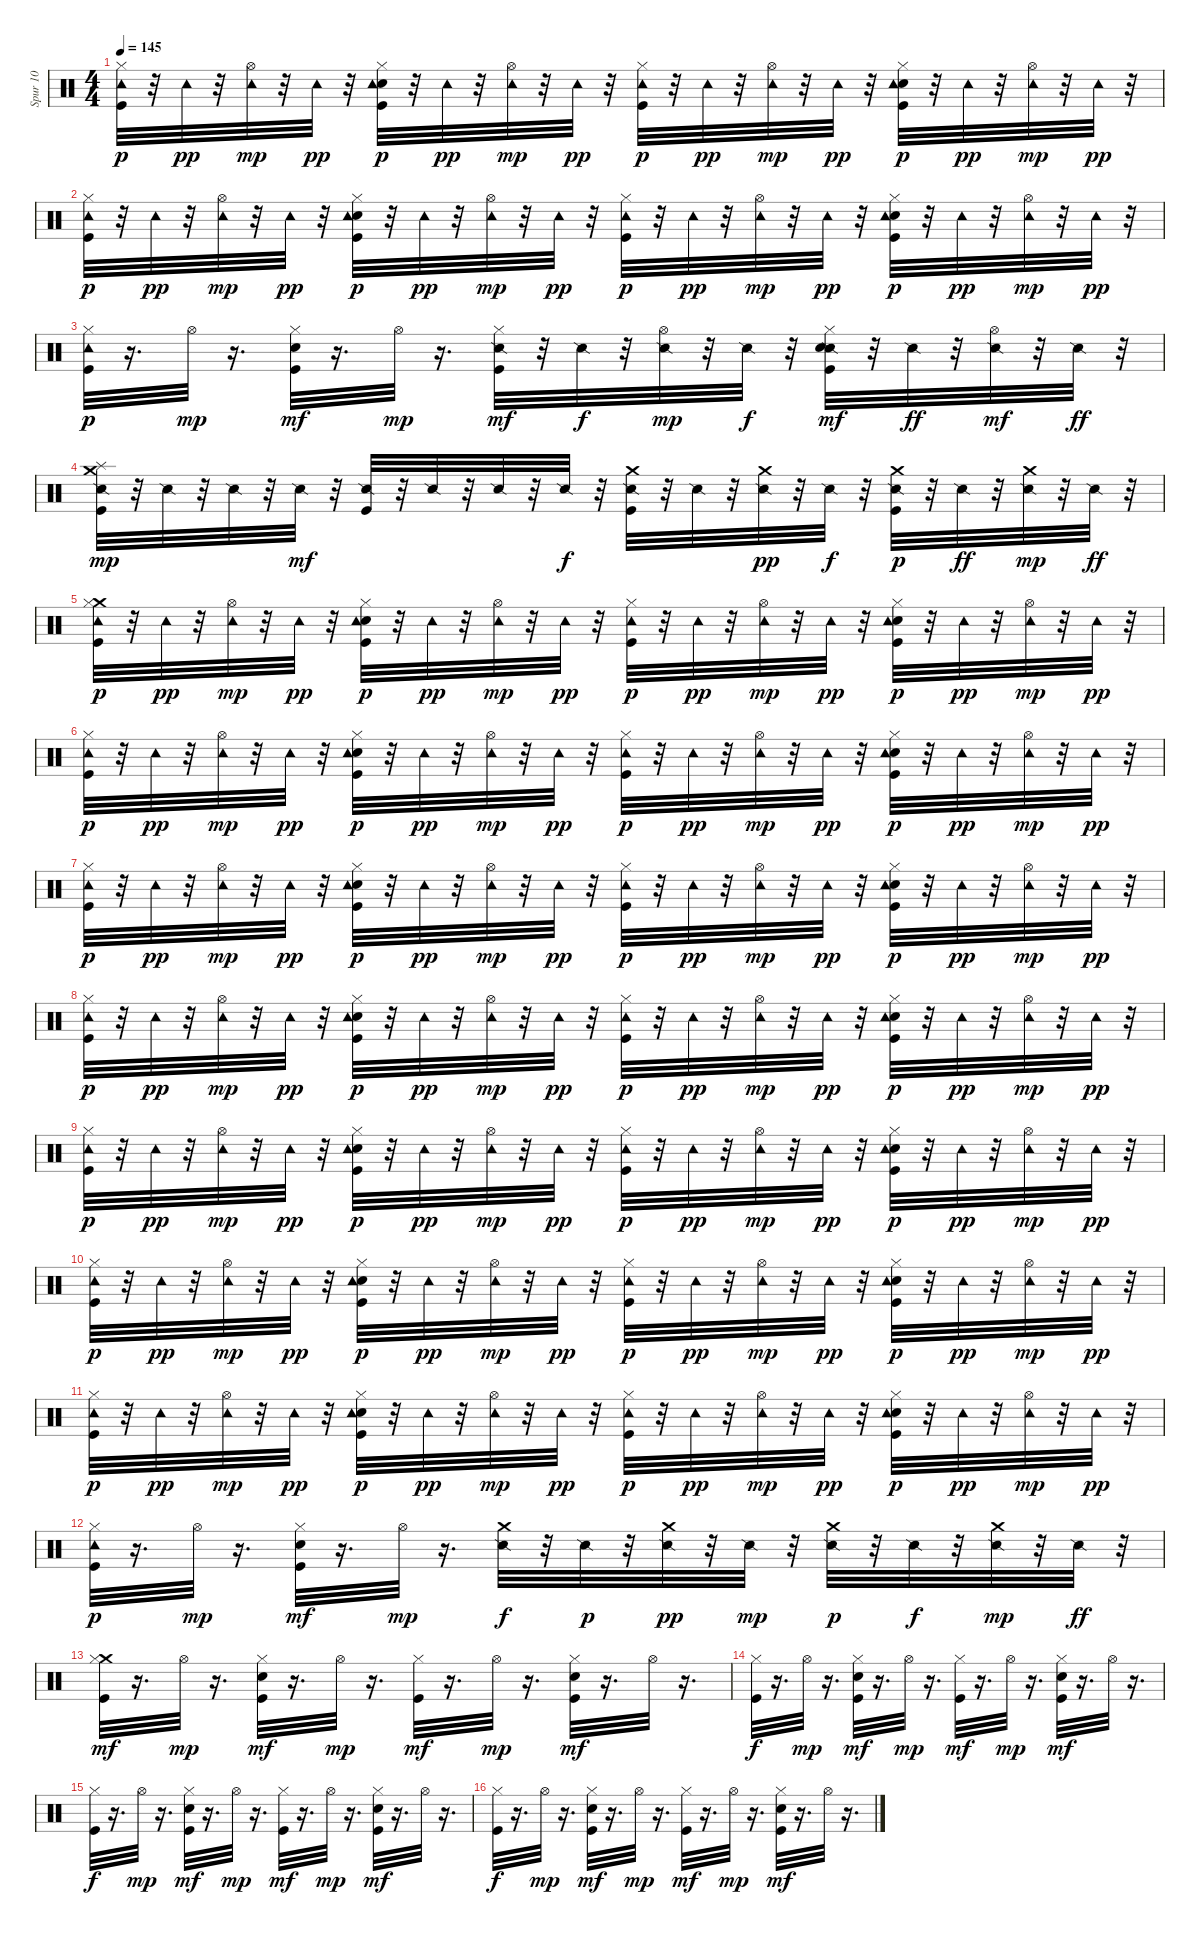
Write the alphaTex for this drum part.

\track ("Spur 10" "Spur 10") {instrument percussion}
\staff {score}
\articulation defaults
\ts (4 4)
\tempo 145
\clef neutral
\ks c
("Kick (hit)" "Hi-Hat (closed)" "Tambourine (hit)").32{dy p} r.32 "Tambourine (hit)".32{dy pp} r.32 ("Hi-Hat (open)" "Tambourine (hit)").32{dy mp} r.32 "Tambourine (hit)".32{dy pp} r.32 ("Kick (hit)" "Snare (hit) 2" "Hi-Hat (closed)" "Tambourine (hit)").32{dy p} r.32 "Tambourine (hit)".32{dy pp} r.32 ("Hi-Hat (open)" "Tambourine (hit)").32{dy mp} r.32 "Tambourine (hit)".32{dy pp} r.32 ("Kick (hit)" "Hi-Hat (closed)" "Tambourine (hit)").32{dy p} r.32 "Tambourine (hit)".32{dy pp} r.32 ("Hi-Hat (open)" "Tambourine (hit)").32{dy mp} r.32 "Tambourine (hit)".32{dy pp} r.32 ("Kick (hit)" "Snare (hit) 2" "Hi-Hat (closed)" "Tambourine (hit)").32{dy p} r.32 "Tambourine (hit)".32{dy pp} r.32 ("Hi-Hat (open)" "Tambourine (hit)").32{dy mp} r.32 "Tambourine (hit)".32{dy pp} r.32 |
("Kick (hit)" "Hi-Hat (closed)" "Tambourine (hit)").32{dy p} r.32 "Tambourine (hit)".32{dy pp} r.32 ("Hi-Hat (open)" "Tambourine (hit)").32{dy mp} r.32 "Tambourine (hit)".32{dy pp} r.32 ("Kick (hit)" "Snare (hit) 2" "Hi-Hat (closed)" "Tambourine (hit)").32{dy p} r.32 "Tambourine (hit)".32{dy pp} r.32 ("Hi-Hat (open)" "Tambourine (hit)").32{dy mp} r.32 "Tambourine (hit)".32{dy pp} r.32 ("Kick (hit)" "Hi-Hat (closed)" "Tambourine (hit)").32{dy p} r.32 "Tambourine (hit)".32{dy pp} r.32 ("Hi-Hat (open)" "Tambourine (hit)").32{dy mp} r.32 "Tambourine (hit)".32{dy pp} r.32 ("Kick (hit)" "Snare (hit) 2" "Hi-Hat (closed)" "Tambourine (hit)").32{dy p} r.32 "Tambourine (hit)".32{dy pp} r.32 ("Hi-Hat (open)" "Tambourine (hit)").32{dy mp} r.32 "Tambourine (hit)".32{dy pp} r.32 |
("Kick (hit)" "Hi-Hat (closed)" "Tambourine (hit)").32{dy p} r.16{d} "Hi-Hat (open)".32{dy mp} r.16{d} ("Kick (hit)" "Snare (hit) 2" "Hi-Hat (closed)").32{dy mf} r.16{d} "Hi-Hat (open)".32{dy mp} r.16{d} ("Snare (side stick) 2" "Kick (hit)" "Hi-Hat (closed)").32{dy mf} r.32 "Snare (side stick) 2".32{dy f} r.32 ("Snare (side stick) 2" "Hi-Hat (open)").32{dy mp balance 11} r.32 "Snare (side stick) 2".32{dy f} r.32 ("Snare (side stick) 2" "Kick (hit)" "Snare (hit) 2" "Hi-Hat (closed)").32{dy mf balance 8} r.32 "Snare (side stick) 2".32{dy ff} r.32 ("Snare (side stick) 2" "Hi-Hat (open)").32{dy mf balance 4} r.32 "Snare (side stick) 2".32{dy ff} r.32 |
("Crash medium (hit)" "Snare (side stick) 2" "Kick (hit)" "Splash (hit)").32{dy mp balance 8} r.32 "Snare (side stick) 2".32 r.32 "Snare (side stick) 2".32 r.32 "Snare (side stick) 2".32{dy mf} r.32 ("Snare (side stick) 2" "Kick (hit)").32 r.32 "Snare (side stick) 2".32 r.32 "Snare (side stick) 2".32 r.32 "Snare (side stick) 2".32{dy f} r.32 ("Snare (side stick) 2" "Kick (hit)" "Crash medium (hit)").32{balance 10} r.32 "Snare (side stick) 2".32 r.32 ("Snare (side stick) 2" "Crash medium (hit)").32{dy pp balance 14} r.32 "Snare (side stick) 2".32{dy f} r.32 ("Snare (side stick) 2" "Kick (hit)" "Crash medium (hit)").32{dy p balance 7} r.32 "Snare (side stick) 2".32{dy ff} r.32 ("Snare (side stick) 2" "Crash medium (hit)").32{dy mp balance 0} r.32 "Snare (side stick) 2".32{dy ff} r.32 |
("Crash medium (hit)" "Kick (hit)" "Hi-Hat (closed)" "Tambourine (hit)").32{dy p balance 8} r.32 "Tambourine (hit)".32{dy pp} r.32 ("Hi-Hat (open)" "Tambourine (hit)").32{dy mp} r.32 "Tambourine (hit)".32{dy pp} r.32 ("Kick (hit)" "Snare (hit) 2" "Hi-Hat (closed)" "Tambourine (hit)").32{dy p} r.32 "Tambourine (hit)".32{dy pp} r.32 ("Hi-Hat (open)" "Tambourine (hit)").32{dy mp} r.32 "Tambourine (hit)".32{dy pp} r.32 ("Kick (hit)" "Hi-Hat (closed)" "Tambourine (hit)").32{dy p} r.32 "Tambourine (hit)".32{dy pp} r.32 ("Hi-Hat (open)" "Tambourine (hit)").32{dy mp} r.32 "Tambourine (hit)".32{dy pp} r.32 ("Kick (hit)" "Snare (hit) 2" "Hi-Hat (closed)" "Tambourine (hit)").32{dy p} r.32 "Tambourine (hit)".32{dy pp} r.32 ("Hi-Hat (open)" "Tambourine (hit)").32{dy mp} r.32 "Tambourine (hit)".32{dy pp} r.32 |
("Kick (hit)" "Hi-Hat (closed)" "Tambourine (hit)").32{dy p} r.32 "Tambourine (hit)".32{dy pp} r.32 ("Hi-Hat (open)" "Tambourine (hit)").32{dy mp} r.32 "Tambourine (hit)".32{dy pp} r.32 ("Kick (hit)" "Snare (hit) 2" "Hi-Hat (closed)" "Tambourine (hit)").32{dy p} r.32 "Tambourine (hit)".32{dy pp} r.32 ("Hi-Hat (open)" "Tambourine (hit)").32{dy mp} r.32 "Tambourine (hit)".32{dy pp} r.32 ("Kick (hit)" "Hi-Hat (closed)" "Tambourine (hit)").32{dy p} r.32 "Tambourine (hit)".32{dy pp} r.32 ("Hi-Hat (open)" "Tambourine (hit)").32{dy mp} r.32 "Tambourine (hit)".32{dy pp} r.32 ("Kick (hit)" "Snare (hit) 2" "Hi-Hat (closed)" "Tambourine (hit)").32{dy p} r.32 "Tambourine (hit)".32{dy pp} r.32 ("Hi-Hat (open)" "Tambourine (hit)").32{dy mp} r.32 "Tambourine (hit)".32{dy pp} r.32 |
("Kick (hit)" "Hi-Hat (closed)" "Tambourine (hit)").32{dy p} r.32 "Tambourine (hit)".32{dy pp} r.32 ("Hi-Hat (open)" "Tambourine (hit)").32{dy mp} r.32 "Tambourine (hit)".32{dy pp} r.32 ("Kick (hit)" "Snare (hit) 2" "Hi-Hat (closed)" "Tambourine (hit)").32{dy p} r.32 "Tambourine (hit)".32{dy pp} r.32 ("Hi-Hat (open)" "Tambourine (hit)").32{dy mp} r.32 "Tambourine (hit)".32{dy pp} r.32 ("Kick (hit)" "Hi-Hat (closed)" "Tambourine (hit)").32{dy p} r.32 "Tambourine (hit)".32{dy pp} r.32 ("Hi-Hat (open)" "Tambourine (hit)").32{dy mp} r.32 "Tambourine (hit)".32{dy pp} r.32 ("Kick (hit)" "Snare (hit) 2" "Hi-Hat (closed)" "Tambourine (hit)").32{dy p} r.32 "Tambourine (hit)".32{dy pp} r.32 ("Hi-Hat (open)" "Tambourine (hit)").32{dy mp} r.32 "Tambourine (hit)".32{dy pp} r.32 |
("Kick (hit)" "Hi-Hat (closed)" "Tambourine (hit)").32{dy p} r.32 "Tambourine (hit)".32{dy pp} r.32 ("Hi-Hat (open)" "Tambourine (hit)").32{dy mp} r.32 "Tambourine (hit)".32{dy pp} r.32 ("Kick (hit)" "Snare (hit) 2" "Hi-Hat (closed)" "Tambourine (hit)").32{dy p} r.32 "Tambourine (hit)".32{dy pp} r.32 ("Hi-Hat (open)" "Tambourine (hit)").32{dy mp} r.32 "Tambourine (hit)".32{dy pp} r.32 ("Kick (hit)" "Hi-Hat (closed)" "Tambourine (hit)").32{dy p} r.32 "Tambourine (hit)".32{dy pp} r.32 ("Hi-Hat (open)" "Tambourine (hit)").32{dy mp} r.32 "Tambourine (hit)".32{dy pp} r.32 ("Kick (hit)" "Snare (hit) 2" "Hi-Hat (closed)" "Tambourine (hit)").32{dy p} r.32 "Tambourine (hit)".32{dy pp} r.32 ("Hi-Hat (open)" "Tambourine (hit)").32{dy mp} r.32 "Tambourine (hit)".32{dy pp} r.32 |
("Kick (hit)" "Hi-Hat (closed)" "Tambourine (hit)").32{dy p} r.32 "Tambourine (hit)".32{dy pp} r.32 ("Hi-Hat (open)" "Tambourine (hit)").32{dy mp} r.32 "Tambourine (hit)".32{dy pp} r.32 ("Kick (hit)" "Snare (hit) 2" "Hi-Hat (closed)" "Tambourine (hit)").32{dy p} r.32 "Tambourine (hit)".32{dy pp} r.32 ("Hi-Hat (open)" "Tambourine (hit)").32{dy mp} r.32 "Tambourine (hit)".32{dy pp} r.32 ("Kick (hit)" "Hi-Hat (closed)" "Tambourine (hit)").32{dy p} r.32 "Tambourine (hit)".32{dy pp} r.32 ("Hi-Hat (open)" "Tambourine (hit)").32{dy mp} r.32 "Tambourine (hit)".32{dy pp} r.32 ("Kick (hit)" "Snare (hit) 2" "Hi-Hat (closed)" "Tambourine (hit)").32{dy p} r.32 "Tambourine (hit)".32{dy pp} r.32 ("Hi-Hat (open)" "Tambourine (hit)").32{dy mp} r.32 "Tambourine (hit)".32{dy pp} r.32 |
("Kick (hit)" "Hi-Hat (closed)" "Tambourine (hit)").32{dy p} r.32 "Tambourine (hit)".32{dy pp} r.32 ("Hi-Hat (open)" "Tambourine (hit)").32{dy mp} r.32 "Tambourine (hit)".32{dy pp} r.32 ("Kick (hit)" "Snare (hit) 2" "Hi-Hat (closed)" "Tambourine (hit)").32{dy p} r.32 "Tambourine (hit)".32{dy pp} r.32 ("Hi-Hat (open)" "Tambourine (hit)").32{dy mp} r.32 "Tambourine (hit)".32{dy pp} r.32 ("Kick (hit)" "Hi-Hat (closed)" "Tambourine (hit)").32{dy p} r.32 "Tambourine (hit)".32{dy pp} r.32 ("Hi-Hat (open)" "Tambourine (hit)").32{dy mp} r.32 "Tambourine (hit)".32{dy pp} r.32 ("Kick (hit)" "Snare (hit) 2" "Hi-Hat (closed)" "Tambourine (hit)").32{dy p} r.32 "Tambourine (hit)".32{dy pp} r.32 ("Hi-Hat (open)" "Tambourine (hit)").32{dy mp} r.32 "Tambourine (hit)".32{dy pp} r.32 |
("Kick (hit)" "Hi-Hat (closed)" "Tambourine (hit)").32{dy p} r.32 "Tambourine (hit)".32{dy pp} r.32 ("Hi-Hat (open)" "Tambourine (hit)").32{dy mp} r.32 "Tambourine (hit)".32{dy pp} r.32 ("Kick (hit)" "Snare (hit) 2" "Hi-Hat (closed)" "Tambourine (hit)").32{dy p} r.32 "Tambourine (hit)".32{dy pp} r.32 ("Hi-Hat (open)" "Tambourine (hit)").32{dy mp} r.32 "Tambourine (hit)".32{dy pp} r.32 ("Kick (hit)" "Hi-Hat (closed)" "Tambourine (hit)").32{dy p} r.32 "Tambourine (hit)".32{dy pp} r.32 ("Hi-Hat (open)" "Tambourine (hit)").32{dy mp} r.32 "Tambourine (hit)".32{dy pp} r.32 ("Kick (hit)" "Snare (hit) 2" "Hi-Hat (closed)" "Tambourine (hit)").32{dy p} r.32 "Tambourine (hit)".32{dy pp} r.32 ("Hi-Hat (open)" "Tambourine (hit)").32{dy mp} r.32 "Tambourine (hit)".32{dy pp} r.32 |
("Kick (hit)" "Hi-Hat (closed)" "Tambourine (hit)").32{dy p} r.16{d} "Hi-Hat (open)".32{dy mp} r.16{d} ("Kick (hit)" "Snare (hit) 2" "Hi-Hat (closed)").32{dy mf} r.16{d} "Hi-Hat (open)".32{dy mp} r.16{d} ("Snare (side stick) 2" "Crash medium (hit)").32{dy f balance 12} r.32 "Snare (side stick) 2".32{dy p} r.32 ("Snare (side stick) 2" "Crash medium (hit)").32{dy pp balance 10} r.32 "Snare (side stick) 2".32{dy mp} r.32 ("Snare (side stick) 2" "Crash medium (hit)").32{dy p balance 6} r.32 "Snare (side stick) 2".32{dy f} r.32 ("Snare (side stick) 2" "Crash medium (hit)").32{dy mp balance 2} r.32 "Snare (side stick) 2".32{dy ff} r.32 |
("Crash medium (hit)" "Kick (hit)" "Hi-Hat (closed)").32{dy mf balance 8} r.16{d} "Hi-Hat (open)".32{dy mp} r.16{d} ("Kick (hit)" "Snare (hit) 2" "Hi-Hat (closed)").32{dy mf} r.16{d} "Hi-Hat (open)".32{dy mp} r.16{d} ("Kick (hit)" "Hi-Hat (closed)").32{dy mf} r.16{d} "Hi-Hat (open)".32{dy mp} r.16{d} ("Kick (hit)" "Snare (hit) 2" "Hi-Hat (closed)").32{dy mf} r.16{d} "Hi-Hat (open)".32 r.16{d} |
("Kick (hit)" "Hi-Hat (closed)").32{dy f} r.16{d} "Hi-Hat (open)".32{dy mp} r.16{d} ("Kick (hit)" "Snare (hit) 2" "Hi-Hat (closed)").32{dy mf} r.16{d} "Hi-Hat (open)".32{dy mp} r.16{d} ("Kick (hit)" "Hi-Hat (closed)").32{dy mf} r.16{d} "Hi-Hat (open)".32{dy mp} r.16{d} ("Kick (hit)" "Snare (hit) 2" "Hi-Hat (closed)").32{dy mf} r.16{d} "Hi-Hat (open)".32 r.16{d} |
("Kick (hit)" "Hi-Hat (closed)").32{dy f} r.16{d} "Hi-Hat (open)".32{dy mp} r.16{d} ("Kick (hit)" "Snare (hit) 2" "Hi-Hat (closed)").32{dy mf} r.16{d} "Hi-Hat (open)".32{dy mp} r.16{d} ("Kick (hit)" "Hi-Hat (closed)").32{dy mf} r.16{d} "Hi-Hat (open)".32{dy mp} r.16{d} ("Kick (hit)" "Snare (hit) 2" "Hi-Hat (closed)").32{dy mf} r.16{d} "Hi-Hat (open)".32 r.16{d} |
("Kick (hit)" "Hi-Hat (closed)").32{dy f} r.16{d} "Hi-Hat (open)".32{dy mp} r.16{d} ("Kick (hit)" "Snare (hit) 2" "Hi-Hat (closed)").32{dy mf} r.16{d} "Hi-Hat (open)".32{dy mp} r.16{d} ("Kick (hit)" "Hi-Hat (closed)").32{dy mf} r.16{d} "Hi-Hat (open)".32{dy mp} r.16{d} ("Kick (hit)" "Snare (hit) 2" "Hi-Hat (closed)").32{dy mf} r.16{d} "Hi-Hat (open)".32 r.16{d}
